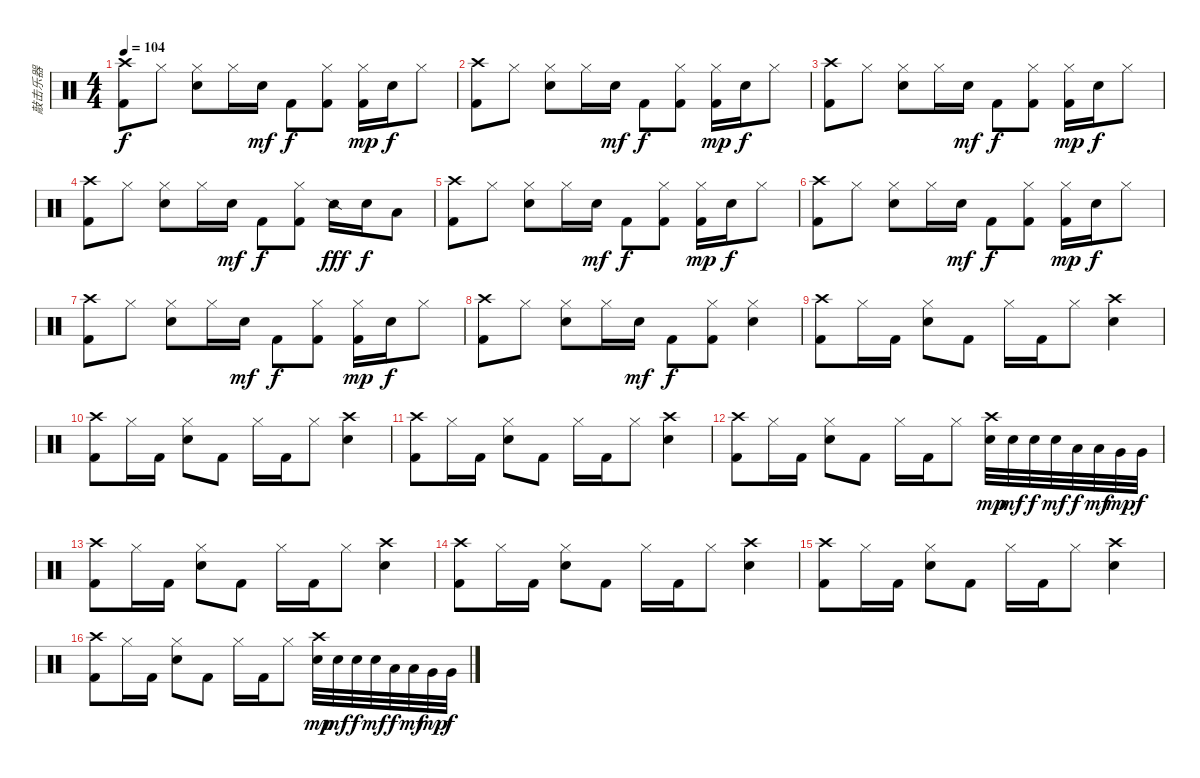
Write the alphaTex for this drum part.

\track ("敲击乐器" "敲击乐器") {instrument percussion}
\staff {score}
\articulation defaults
\ts (4 4)
\tempo 104
\clef neutral
\ks c
("Crash high (hit)" "Kick (hit) 2").8{dy f} "Hi-Hat (closed)".8 ("Hi-Hat (closed)" "Electric Snare (hit)").8 "Hi-Hat (closed)".16 "Electric Snare (hit)".16{dy mf} "Kick (hit) 2".8{dy f} ("Hi-Hat (closed)" "Kick (hit) 2").8 ("Hi-Hat (closed)" "Kick (hit) 2").16{dy mp} "Electric Snare (hit)".16{dy f} "Hi-Hat (closed)".8 |
("Crash high (hit)" "Kick (hit) 2").8 "Hi-Hat (closed)".8 ("Hi-Hat (closed)" "Electric Snare (hit)").8 "Hi-Hat (closed)".16 "Electric Snare (hit)".16{dy mf} "Kick (hit) 2".8{dy f} ("Hi-Hat (closed)" "Kick (hit) 2").8 ("Hi-Hat (closed)" "Kick (hit) 2").16{dy mp} "Electric Snare (hit)".16{dy f} "Hi-Hat (closed)".8 |
("Crash high (hit)" "Kick (hit) 2").8 "Hi-Hat (closed)".8 ("Hi-Hat (closed)" "Electric Snare (hit)").8 "Hi-Hat (closed)".16 "Electric Snare (hit)".16{dy mf} "Kick (hit) 2".8{dy f} ("Hi-Hat (closed)" "Kick (hit) 2").8 ("Hi-Hat (closed)" "Kick (hit) 2").16{dy mp} "Electric Snare (hit)".16{dy f} "Hi-Hat (closed)".8 |
("Crash high (hit)" "Kick (hit) 2").8 "Hi-Hat (closed)".8 ("Hi-Hat (closed)" "Electric Snare (hit)").8 "Hi-Hat (closed)".16 "Electric Snare (hit)".16{dy mf} "Kick (hit) 2".8{dy f} ("Hi-Hat (closed)" "Kick (hit) 2").8 "Snare (side stick) 2".16{dy fff} "Electric Snare (hit)".16{dy f} "Low Tom (hit)".8 |
("Crash high (hit)" "Kick (hit) 2").8 "Hi-Hat (closed)".8 ("Hi-Hat (closed)" "Electric Snare (hit)").8 "Hi-Hat (closed)".16 "Electric Snare (hit)".16{dy mf} "Kick (hit) 2".8{dy f} ("Hi-Hat (closed)" "Kick (hit) 2").8 ("Hi-Hat (closed)" "Kick (hit) 2").16{dy mp} "Electric Snare (hit)".16{dy f} "Hi-Hat (closed)".8 |
("Crash high (hit)" "Kick (hit) 2").8 "Hi-Hat (closed)".8 ("Hi-Hat (closed)" "Electric Snare (hit)").8 "Hi-Hat (closed)".16 "Electric Snare (hit)".16{dy mf} "Kick (hit) 2".8{dy f} ("Hi-Hat (closed)" "Kick (hit) 2").8 ("Hi-Hat (closed)" "Kick (hit) 2").16{dy mp} "Electric Snare (hit)".16{dy f} "Hi-Hat (closed)".8 |
("Crash high (hit)" "Kick (hit) 2").8 "Hi-Hat (closed)".8 ("Hi-Hat (closed)" "Electric Snare (hit)").8 "Hi-Hat (closed)".16 "Electric Snare (hit)".16{dy mf} "Kick (hit) 2".8{dy f} ("Hi-Hat (closed)" "Kick (hit) 2").8 ("Hi-Hat (closed)" "Kick (hit) 2").16{dy mp} "Electric Snare (hit)".16{dy f} "Hi-Hat (closed)".8 |
("Crash high (hit)" "Kick (hit) 2").8 "Hi-Hat (closed)".8 ("Hi-Hat (closed)" "Electric Snare (hit)").8 "Hi-Hat (closed)".16 "Electric Snare (hit)".16{dy mf} "Kick (hit) 2".8{dy f} ("Hi-Hat (closed)" "Kick (hit) 2").8 ("Hi-Hat (closed)" "Electric Snare (hit)").4 |
("Crash high (hit)" "Kick (hit) 2").8 "Hi-Hat (closed)".16 "Kick (hit) 2".16 ("Hi-Hat (closed)" "Electric Snare (hit)").8 "Kick (hit) 2".8 "Hi-Hat (closed)".16 "Kick (hit) 2".16 "Hi-Hat (closed)".8 ("Crash high (hit)" "Electric Snare (hit)").4 |
("Crash high (hit)" "Kick (hit) 2").8 "Hi-Hat (closed)".16 "Kick (hit) 2".16 ("Hi-Hat (closed)" "Electric Snare (hit)").8 "Kick (hit) 2".8 "Hi-Hat (closed)".16 "Kick (hit) 2".16 "Hi-Hat (closed)".8 ("Crash high (hit)" "Electric Snare (hit)").4 |
("Crash high (hit)" "Kick (hit) 2").8 "Hi-Hat (closed)".16 "Kick (hit) 2".16 ("Hi-Hat (closed)" "Electric Snare (hit)").8 "Kick (hit) 2".8 "Hi-Hat (closed)".16 "Kick (hit) 2".16 "Hi-Hat (closed)".8 ("Crash high (hit)" "Electric Snare (hit)").4 |
("Crash high (hit)" "Kick (hit) 2").8 "Hi-Hat (closed)".16 "Kick (hit) 2".16 ("Hi-Hat (closed)" "Electric Snare (hit)").8 "Kick (hit) 2".8 "Hi-Hat (closed)".16 "Kick (hit) 2".16 "Hi-Hat (closed)".8 ("Crash high (hit)" "Electric Snare (hit)").32{dy mp} "Electric Snare (hit)".32{dy mf} "Electric Snare (hit)".32{dy f} "Electric Snare (hit)".32{dy mf} "Low Tom (hit)".32{dy f} "Low Tom (hit)".32{dy mf} "Very Low Tom (hit)".32{dy mp} "Very Low Tom (hit)".32{dy f} |
("Crash high (hit)" "Kick (hit) 2").8 "Hi-Hat (closed)".16 "Kick (hit) 2".16 ("Hi-Hat (closed)" "Electric Snare (hit)").8 "Kick (hit) 2".8 "Hi-Hat (closed)".16 "Kick (hit) 2".16 "Hi-Hat (closed)".8 ("Crash high (hit)" "Electric Snare (hit)").4 |
("Crash high (hit)" "Kick (hit) 2").8 "Hi-Hat (closed)".16 "Kick (hit) 2".16 ("Hi-Hat (closed)" "Electric Snare (hit)").8 "Kick (hit) 2".8 "Hi-Hat (closed)".16 "Kick (hit) 2".16 "Hi-Hat (closed)".8 ("Crash high (hit)" "Electric Snare (hit)").4 |
("Crash high (hit)" "Kick (hit) 2").8 "Hi-Hat (closed)".16 "Kick (hit) 2".16 ("Hi-Hat (closed)" "Electric Snare (hit)").8 "Kick (hit) 2".8 "Hi-Hat (closed)".16 "Kick (hit) 2".16 "Hi-Hat (closed)".8 ("Crash high (hit)" "Electric Snare (hit)").4 |
("Crash high (hit)" "Kick (hit) 2").8 "Hi-Hat (closed)".16 "Kick (hit) 2".16 ("Hi-Hat (closed)" "Electric Snare (hit)").8 "Kick (hit) 2".8 "Hi-Hat (closed)".16 "Kick (hit) 2".16 "Hi-Hat (closed)".8 ("Crash high (hit)" "Electric Snare (hit)").32{dy mp} "Electric Snare (hit)".32{dy mf} "Electric Snare (hit)".32{dy f} "Electric Snare (hit)".32{dy mf} "Low Tom (hit)".32{dy f} "Low Tom (hit)".32{dy mf} "Very Low Tom (hit)".32{dy mp} "Very Low Tom (hit)".32{dy f}
